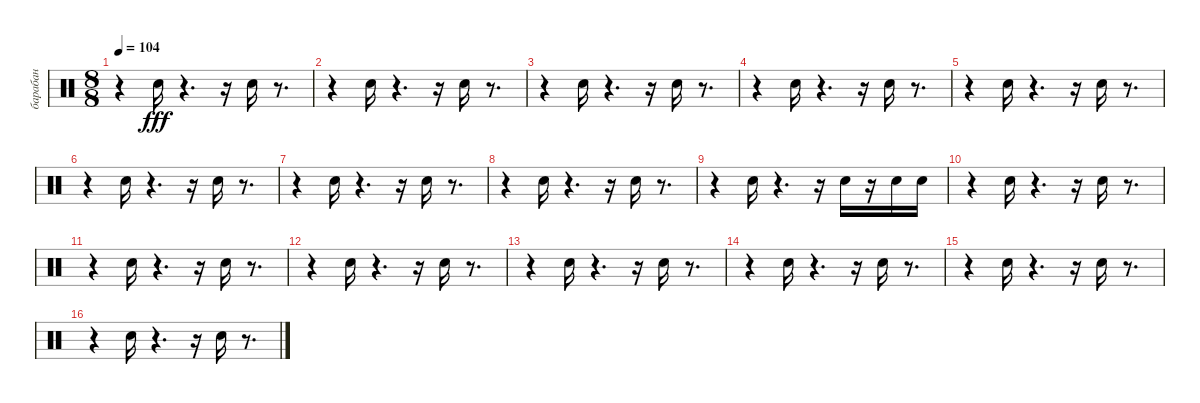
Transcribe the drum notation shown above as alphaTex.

\track ("барабан" "барабан") {instrument percussion}
\staff {score}
\articulation defaults
\ts (8 8)
\tempo 104
\clef neutral
\ks c
r.4{dy fff} "Snare (hit) 2".16 r.4{d} r.16 "Snare (hit) 2".16 r.8{d} |
r.4 "Snare (hit) 2".16 r.4{d} r.16 "Snare (hit) 2".16 r.8{d} |
r.4 "Snare (hit) 2".16 r.4{d} r.16 "Snare (hit) 2".16 r.8{d} |
r.4 "Snare (hit) 2".16 r.4{d} r.16 "Snare (hit) 2".16 r.8{d} |
r.4 "Snare (hit) 2".16 r.4{d} r.16 "Snare (hit) 2".16 r.8{d} |
r.4 "Snare (hit) 2".16 r.4{d} r.16 "Snare (hit) 2".16 r.8{d} |
r.4 "Snare (hit) 2".16 r.4{d} r.16 "Snare (hit) 2".16 r.8{d} |
r.4 "Snare (hit) 2".16 r.4{d} r.16 "Snare (hit) 2".16 r.8{d} |
r.4 "Snare (hit) 2".16 r.4{d} r.16 "Snare (hit) 2".16 r.16 "Snare (hit) 2".16 "Snare (hit) 2".16 |
r.4 "Snare (hit) 2".16 r.4{d} r.16 "Snare (hit) 2".16 r.8{d} |
r.4 "Snare (hit) 2".16 r.4{d} r.16 "Snare (hit) 2".16 r.8{d} |
r.4 "Snare (hit) 2".16 r.4{d} r.16 "Snare (hit) 2".16 r.8{d} |
r.4 "Snare (hit) 2".16 r.4{d} r.16 "Snare (hit) 2".16 r.8{d} |
r.4 "Snare (hit) 2".16 r.4{d} r.16 "Snare (hit) 2".16 r.8{d} |
r.4 "Snare (hit) 2".16 r.4{d} r.16 "Snare (hit) 2".16 r.8{d} |
r.4 "Snare (hit) 2".16 r.4{d} r.16 "Snare (hit) 2".16 r.8{d}
